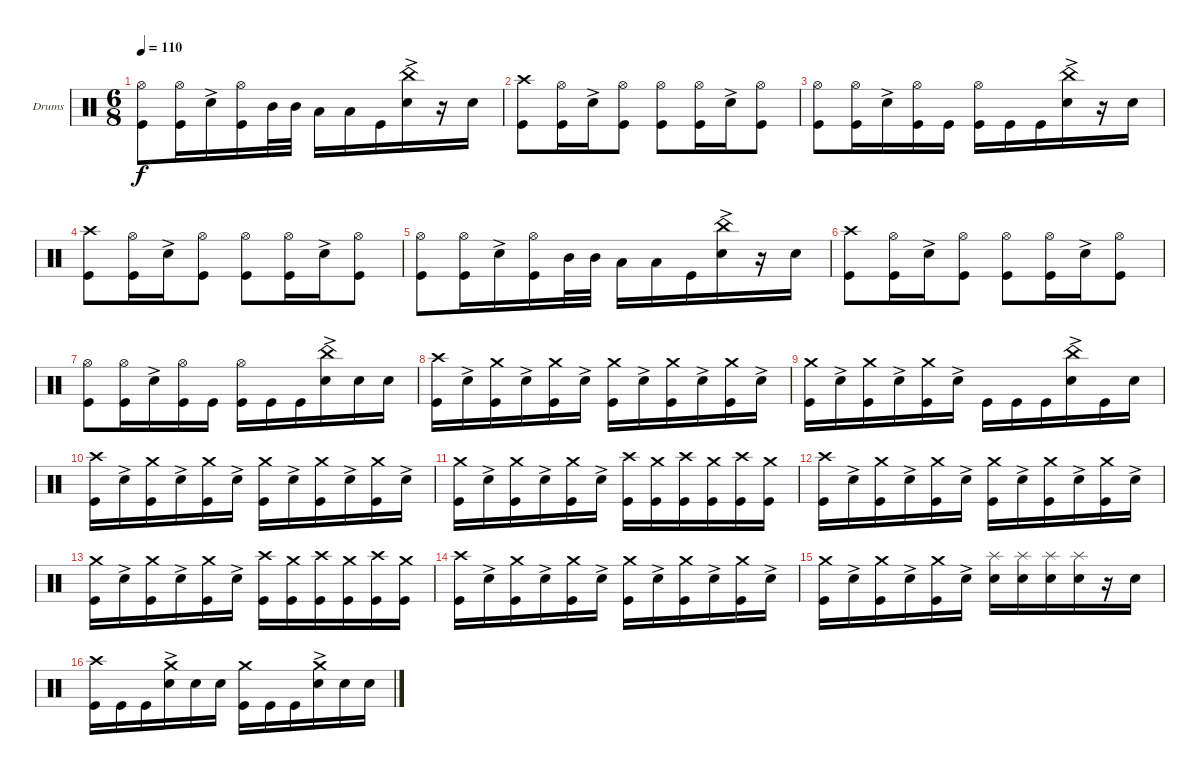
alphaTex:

\bracketExtendMode groupsimilarinstruments
\firstSystemTrackNameOrientation horizontal
\otherSystemsTrackNameOrientation horizontal
\track ("Drumkit" "Drums") {instrument percussion}
\staff {score}
\articulation defaults
\ts (6 8)
\tempo 110
\clef neutral
\ks c
("Kick (hit)" "Hi-Hat (open)").8{dy f} ("Kick (hit)" "Hi-Hat (open)").16 "Snare (hit) 2"{ac}.16 ("Kick (hit)" "Hi-Hat (open)").16 "Mid Tom (hit)".32 "Mid Tom (hit)".32 "Low Tom (hit)".16 "Low Tom (hit)".16 "Kick (hit)".16 ("Snare (hit) 2"{ac} "China (hit)").16 r.16 "Snare (hit) 2".16 |
("Kick (hit)" "Crash high (hit)").8 ("Kick (hit)" "Hi-Hat (open)").16 "Snare (hit) 2"{ac}.16 ("Kick (hit)" "Hi-Hat (open)").8 ("Kick (hit)" "Hi-Hat (open)").8 ("Kick (hit)" "Hi-Hat (open)").16 "Snare (hit) 2"{ac}.16 ("Kick (hit)" "Hi-Hat (open)").8 |
("Kick (hit)" "Hi-Hat (open)").8 ("Kick (hit)" "Hi-Hat (open)").16 "Snare (hit) 2"{ac}.16 ("Kick (hit)" "Hi-Hat (open)").16 "Kick (hit)".16 ("Kick (hit)" "Hi-Hat (open)").16 "Kick (hit)".16 "Kick (hit)".16 ("Snare (hit) 2"{ac} "China (hit)").16 r.16 "Snare (hit) 2".16 |
("Kick (hit)" "Crash high (hit)").8 ("Kick (hit)" "Hi-Hat (open)").16 "Snare (hit) 2"{ac}.16 ("Kick (hit)" "Hi-Hat (open)").8 ("Kick (hit)" "Hi-Hat (open)").8 ("Kick (hit)" "Hi-Hat (open)").16 "Snare (hit) 2"{ac}.16 ("Kick (hit)" "Hi-Hat (open)").8 |
("Kick (hit)" "Hi-Hat (open)").8 ("Kick (hit)" "Hi-Hat (open)").16 "Snare (hit) 2"{ac}.16 ("Kick (hit)" "Hi-Hat (open)").16 "Mid Tom (hit)".32 "Mid Tom (hit)".32 "Low Tom (hit)".16 "Low Tom (hit)".16 "Kick (hit)".16 ("Snare (hit) 2"{ac} "China (hit)").16 r.16 "Snare (hit) 2".16 |
("Kick (hit)" "Crash high (hit)").8 ("Kick (hit)" "Hi-Hat (open)").16 "Snare (hit) 2"{ac}.16 ("Kick (hit)" "Hi-Hat (open)").8 ("Kick (hit)" "Hi-Hat (open)").8 ("Kick (hit)" "Hi-Hat (open)").16 "Snare (hit) 2"{ac}.16 ("Kick (hit)" "Hi-Hat (open)").8 |
("Kick (hit)" "Hi-Hat (open)").8 ("Kick (hit)" "Hi-Hat (open)").16 "Snare (hit) 2"{ac}.16 ("Kick (hit)" "Hi-Hat (open)").16 "Kick (hit)".16 ("Kick (hit)" "Hi-Hat (open)").16 "Kick (hit)".16 "Kick (hit)".16 ("Snare (hit) 2"{ac} "China (hit)").16 "Snare (hit) 2".16 "Snare (hit) 2".16 |
("Kick (hit)" "Crash high (hit)").16 "Snare (hit) 2"{ac}.16 ("Kick (hit)" "Crash medium (hit)").16 "Snare (hit) 2"{ac}.16 ("Kick (hit)" "Crash medium (hit)").16 "Snare (hit) 2"{ac}.16 ("Kick (hit)" "Crash medium (hit)").16 "Snare (hit) 2"{ac}.16 ("Kick (hit)" "Crash medium (hit)").16 "Snare (hit) 2"{ac}.16 ("Kick (hit)" "Crash medium (hit)").16 "Snare (hit) 2"{ac}.16 |
("Kick (hit)" "Crash medium (hit)").16 "Snare (hit) 2"{ac}.16 ("Kick (hit)" "Crash medium (hit)").16 "Snare (hit) 2"{ac}.16 ("Kick (hit)" "Crash medium (hit)").16 "Snare (hit) 2"{ac}.16 "Kick (hit)".16 "Kick (hit)".16 "Kick (hit)".16 ("Snare (hit) 2"{ac} "China (hit)").16 "Kick (hit)".16 "Snare (hit) 2".16 |
("Kick (hit)" "Crash high (hit)").16 "Snare (hit) 2"{ac}.16 ("Kick (hit)" "Crash medium (hit)").16 "Snare (hit) 2"{ac}.16 ("Kick (hit)" "Crash medium (hit)").16 "Snare (hit) 2"{ac}.16 ("Kick (hit)" "Crash medium (hit)").16 "Snare (hit) 2"{ac}.16 ("Kick (hit)" "Crash medium (hit)").16 "Snare (hit) 2"{ac}.16 ("Kick (hit)" "Crash medium (hit)").16 "Snare (hit) 2"{ac}.16 |
("Kick (hit)" "Crash medium (hit)").16 "Snare (hit) 2"{ac}.16 ("Kick (hit)" "Crash medium (hit)").16 "Snare (hit) 2"{ac}.16 ("Kick (hit)" "Crash medium (hit)").16 "Snare (hit) 2"{ac}.16 ("Kick (hit)" "Crash high (hit)").16 ("Kick (hit)" "Crash medium (hit)").16 ("Kick (hit)" "Crash high (hit)").16 ("Kick (hit)" "Crash medium (hit)").16 ("Kick (hit)" "Crash high (hit)").16 ("Kick (hit)" "Crash medium (hit)").16 |
("Kick (hit)" "Crash high (hit)").16 "Snare (hit) 2"{ac}.16 ("Kick (hit)" "Crash medium (hit)").16 "Snare (hit) 2"{ac}.16 ("Kick (hit)" "Crash medium (hit)").16 "Snare (hit) 2"{ac}.16 ("Kick (hit)" "Crash medium (hit)").16 "Snare (hit) 2"{ac}.16 ("Kick (hit)" "Crash medium (hit)").16 "Snare (hit) 2"{ac}.16 ("Kick (hit)" "Crash medium (hit)").16 "Snare (hit) 2"{ac}.16 |
("Kick (hit)" "Crash medium (hit)").16 "Snare (hit) 2"{ac}.16 ("Kick (hit)" "Crash medium (hit)").16 "Snare (hit) 2"{ac}.16 ("Kick (hit)" "Crash medium (hit)").16 "Snare (hit) 2"{ac}.16 ("Kick (hit)" "Crash high (hit)").16 ("Kick (hit)" "Crash medium (hit)").16 ("Kick (hit)" "Crash high (hit)").16 ("Kick (hit)" "Crash medium (hit)").16 ("Kick (hit)" "Crash high (hit)").16 ("Kick (hit)" "Crash medium (hit)").16 |
("Kick (hit)" "Crash high (hit)").16 "Snare (hit) 2"{ac}.16 ("Kick (hit)" "Crash medium (hit)").16 "Snare (hit) 2"{ac}.16 ("Kick (hit)" "Crash medium (hit)").16 "Snare (hit) 2"{ac}.16 ("Kick (hit)" "Crash medium (hit)").16 "Snare (hit) 2"{ac}.16 ("Kick (hit)" "Crash medium (hit)").16 "Snare (hit) 2"{ac}.16 ("Kick (hit)" "Crash medium (hit)").16 "Snare (hit) 2"{ac}.16 |
("Kick (hit)" "Crash medium (hit)").16 "Snare (hit) 2"{ac}.16 ("Kick (hit)" "Crash medium (hit)").16 "Snare (hit) 2"{ac}.16 ("Kick (hit)" "Crash medium (hit)").16 "Snare (hit) 2"{ac}.16 ("Snare (hit) 2" "Splash (hit)").16 ("Snare (hit) 2" "Splash (hit)").16 ("Snare (hit) 2" "Splash (hit)").16 ("Snare (hit) 2" "Splash (hit)").16 r.16 "Snare (hit) 2".16 |
("Kick (hit)" "Crash high (hit)").16 "Kick (hit)".16 "Kick (hit)".16 ("Snare (hit) 2"{ac} "Crash medium (hit)").16 "Snare (hit) 2".16 "Snare (hit) 2".16 ("Kick (hit)" "Crash medium (hit)").16 "Kick (hit)".16 "Kick (hit)".16 ("Snare (hit) 2"{ac} "Crash medium (hit)").16 "Snare (hit) 2".16 "Snare (hit) 2".16
